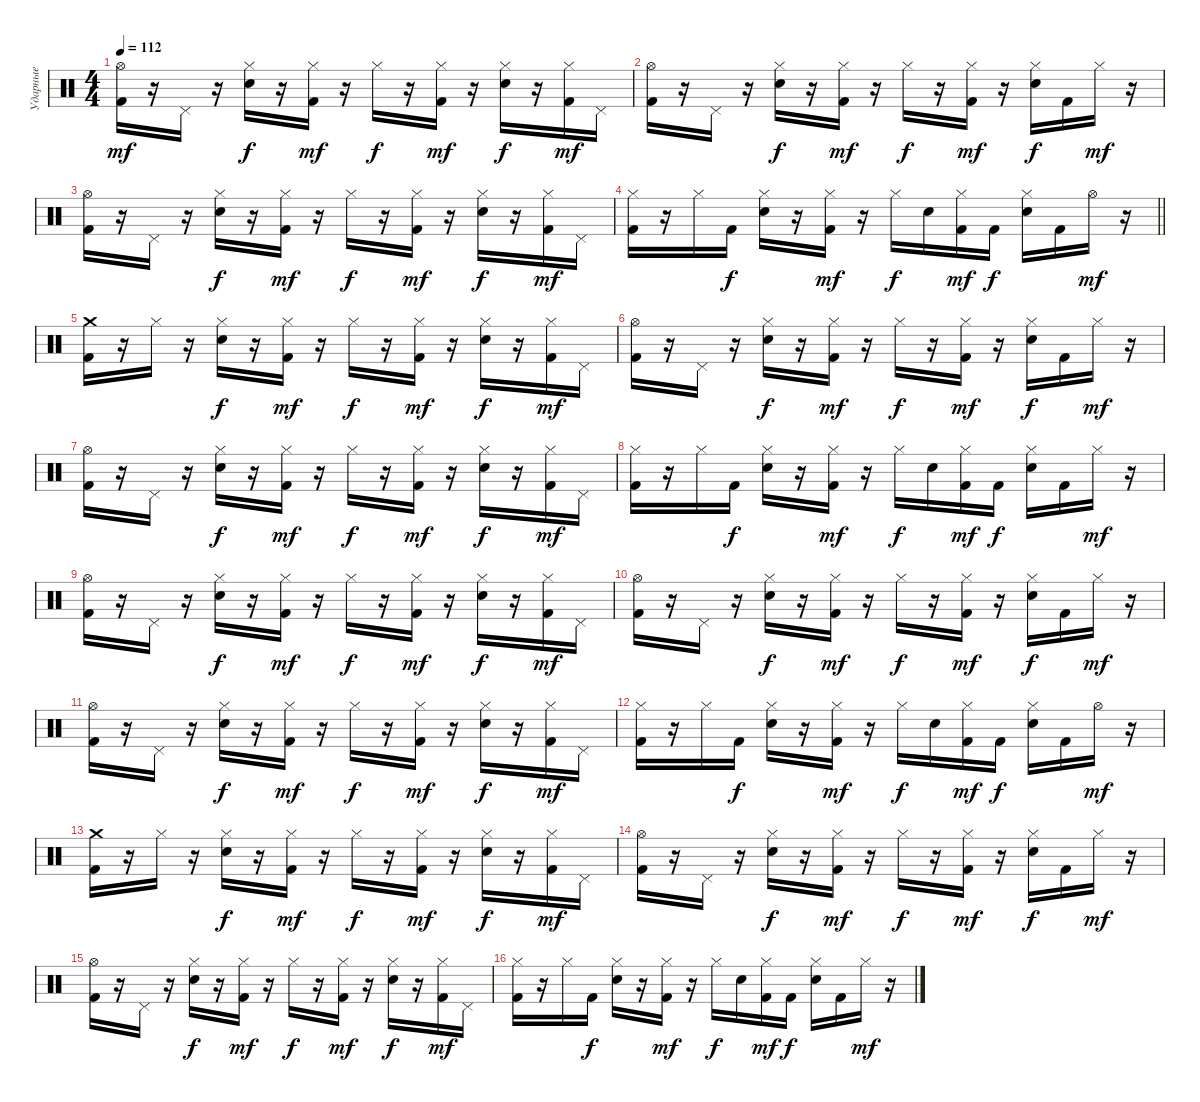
\track ("Ударные" "Ударные") {instrument percussion}
\staff {score}
\articulation defaults
\ts (4 4)
\tempo 112
\clef neutral
\ks c
("Hi-Hat (open)" "Kick (hit) 2").16{dy mf} r.16 "Pedal Hi-Hat (hit)".16 r.16 ("Hi-Hat (closed)" "Electric Snare (hit)").16{dy f} r.16 ("Hi-Hat (closed)" "Kick (hit) 2").16{dy mf} r.16 "Hi-Hat (closed)".16{dy f} r.16 ("Hi-Hat (closed)" "Kick (hit) 2").16{dy mf} r.16 ("Hi-Hat (closed)" "Electric Snare (hit)").16{dy f} r.16 ("Hi-Hat (closed)" "Kick (hit) 2").16{dy mf} "Pedal Hi-Hat (hit)".16 |
("Hi-Hat (open)" "Kick (hit) 2").16 r.16 "Pedal Hi-Hat (hit)".16 r.16 ("Hi-Hat (closed)" "Electric Snare (hit)").16{dy f} r.16 ("Hi-Hat (closed)" "Kick (hit) 2").16{dy mf} r.16 "Hi-Hat (closed)".16{dy f} r.16 ("Hi-Hat (closed)" "Kick (hit) 2").16{dy mf} r.16 ("Hi-Hat (closed)" "Electric Snare (hit)").16{dy f} "Kick (hit) 2".16 "Hi-Hat (closed)".16{dy mf} r.16 |
("Hi-Hat (open)" "Kick (hit) 2").16 r.16 "Pedal Hi-Hat (hit)".16 r.16 ("Hi-Hat (closed)" "Electric Snare (hit)").16{dy f} r.16 ("Hi-Hat (closed)" "Kick (hit) 2").16{dy mf} r.16 "Hi-Hat (closed)".16{dy f} r.16 ("Hi-Hat (closed)" "Kick (hit) 2").16{dy mf} r.16 ("Hi-Hat (closed)" "Electric Snare (hit)").16{dy f} r.16 ("Hi-Hat (closed)" "Kick (hit) 2").16{dy mf} "Pedal Hi-Hat (hit)".16 |
\barLineRight lightlight
("Hi-Hat (closed)" "Kick (hit) 2").16 r.16 "Hi-Hat (closed)".16 "Kick (hit) 2".16{dy f} ("Hi-Hat (closed)" "Electric Snare (hit)").16 r.16 ("Hi-Hat (closed)" "Kick (hit) 2").16{dy mf} r.16 "Hi-Hat (closed)".16{dy f} "Electric Snare (hit)".16 ("Hi-Hat (closed)" "Kick (hit) 2").16{dy mf} "Kick (hit) 2".16{dy f} ("Hi-Hat (closed)" "Electric Snare (hit)").16 "Kick (hit) 2".16 "Hi-Hat (open)".16{dy mf} r.16 |
("Crash medium (hit)" "Kick (hit) 2").16 r.16 "Hi-Hat (closed)".16 r.16 ("Hi-Hat (closed)" "Electric Snare (hit)").16{dy f} r.16 ("Hi-Hat (closed)" "Kick (hit) 2").16{dy mf} r.16 "Hi-Hat (closed)".16{dy f} r.16 ("Hi-Hat (closed)" "Kick (hit) 2").16{dy mf} r.16 ("Hi-Hat (closed)" "Electric Snare (hit)").16{dy f} r.16 ("Hi-Hat (closed)" "Kick (hit) 2").16{dy mf} "Pedal Hi-Hat (hit)".16 |
("Hi-Hat (open)" "Kick (hit) 2").16 r.16 "Pedal Hi-Hat (hit)".16 r.16 ("Hi-Hat (closed)" "Electric Snare (hit)").16{dy f} r.16 ("Hi-Hat (closed)" "Kick (hit) 2").16{dy mf} r.16 "Hi-Hat (closed)".16{dy f} r.16 ("Hi-Hat (closed)" "Kick (hit) 2").16{dy mf} r.16 ("Hi-Hat (closed)" "Electric Snare (hit)").16{dy f} "Kick (hit) 2".16 "Hi-Hat (closed)".16{dy mf} r.16 |
("Hi-Hat (open)" "Kick (hit) 2").16 r.16 "Pedal Hi-Hat (hit)".16 r.16 ("Hi-Hat (closed)" "Electric Snare (hit)").16{dy f} r.16 ("Hi-Hat (closed)" "Kick (hit) 2").16{dy mf} r.16 "Hi-Hat (closed)".16{dy f} r.16 ("Hi-Hat (closed)" "Kick (hit) 2").16{dy mf} r.16 ("Hi-Hat (closed)" "Electric Snare (hit)").16{dy f} r.16 ("Hi-Hat (closed)" "Kick (hit) 2").16{dy mf} "Pedal Hi-Hat (hit)".16 |
("Hi-Hat (closed)" "Kick (hit) 2").16 r.16 "Hi-Hat (closed)".16 "Kick (hit) 2".16{dy f} ("Hi-Hat (closed)" "Electric Snare (hit)").16 r.16 ("Hi-Hat (closed)" "Kick (hit) 2").16{dy mf} r.16 "Hi-Hat (closed)".16{dy f} "Electric Snare (hit)".16 ("Hi-Hat (closed)" "Kick (hit) 2").16{dy mf} "Kick (hit) 2".16{dy f} ("Hi-Hat (closed)" "Electric Snare (hit)").16 "Kick (hit) 2".16 "Hi-Hat (closed)".16{dy mf} r.16 |
("Hi-Hat (open)" "Kick (hit) 2").16 r.16 "Pedal Hi-Hat (hit)".16 r.16 ("Hi-Hat (closed)" "Electric Snare (hit)").16{dy f} r.16 ("Hi-Hat (closed)" "Kick (hit) 2").16{dy mf} r.16 "Hi-Hat (closed)".16{dy f} r.16 ("Hi-Hat (closed)" "Kick (hit) 2").16{dy mf} r.16 ("Hi-Hat (closed)" "Electric Snare (hit)").16{dy f} r.16 ("Hi-Hat (closed)" "Kick (hit) 2").16{dy mf} "Pedal Hi-Hat (hit)".16 |
("Hi-Hat (open)" "Kick (hit) 2").16 r.16 "Pedal Hi-Hat (hit)".16 r.16 ("Hi-Hat (closed)" "Electric Snare (hit)").16{dy f} r.16 ("Hi-Hat (closed)" "Kick (hit) 2").16{dy mf} r.16 "Hi-Hat (closed)".16{dy f} r.16 ("Hi-Hat (closed)" "Kick (hit) 2").16{dy mf} r.16 ("Hi-Hat (closed)" "Electric Snare (hit)").16{dy f} "Kick (hit) 2".16 "Hi-Hat (closed)".16{dy mf} r.16 |
("Hi-Hat (open)" "Kick (hit) 2").16 r.16 "Pedal Hi-Hat (hit)".16 r.16 ("Hi-Hat (closed)" "Electric Snare (hit)").16{dy f} r.16 ("Hi-Hat (closed)" "Kick (hit) 2").16{dy mf} r.16 "Hi-Hat (closed)".16{dy f} r.16 ("Hi-Hat (closed)" "Kick (hit) 2").16{dy mf} r.16 ("Hi-Hat (closed)" "Electric Snare (hit)").16{dy f} r.16 ("Hi-Hat (closed)" "Kick (hit) 2").16{dy mf} "Pedal Hi-Hat (hit)".16 |
("Hi-Hat (closed)" "Kick (hit) 2").16 r.16 "Hi-Hat (closed)".16 "Kick (hit) 2".16{dy f} ("Hi-Hat (closed)" "Electric Snare (hit)").16 r.16 ("Hi-Hat (closed)" "Kick (hit) 2").16{dy mf} r.16 "Hi-Hat (closed)".16{dy f} "Electric Snare (hit)".16 ("Hi-Hat (closed)" "Kick (hit) 2").16{dy mf} "Kick (hit) 2".16{dy f} ("Hi-Hat (closed)" "Electric Snare (hit)").16 "Kick (hit) 2".16 "Hi-Hat (open)".16{dy mf} r.16 |
("Crash medium (hit)" "Kick (hit) 2").16 r.16 "Hi-Hat (closed)".16 r.16 ("Hi-Hat (closed)" "Electric Snare (hit)").16{dy f} r.16 ("Hi-Hat (closed)" "Kick (hit) 2").16{dy mf} r.16 "Hi-Hat (closed)".16{dy f} r.16 ("Hi-Hat (closed)" "Kick (hit) 2").16{dy mf} r.16 ("Hi-Hat (closed)" "Electric Snare (hit)").16{dy f} r.16 ("Hi-Hat (closed)" "Kick (hit) 2").16{dy mf} "Pedal Hi-Hat (hit)".16 |
("Hi-Hat (open)" "Kick (hit) 2").16 r.16 "Pedal Hi-Hat (hit)".16 r.16 ("Hi-Hat (closed)" "Electric Snare (hit)").16{dy f} r.16 ("Hi-Hat (closed)" "Kick (hit) 2").16{dy mf} r.16 "Hi-Hat (closed)".16{dy f} r.16 ("Hi-Hat (closed)" "Kick (hit) 2").16{dy mf} r.16 ("Hi-Hat (closed)" "Electric Snare (hit)").16{dy f} "Kick (hit) 2".16 "Hi-Hat (closed)".16{dy mf} r.16 |
("Hi-Hat (open)" "Kick (hit) 2").16 r.16 "Pedal Hi-Hat (hit)".16 r.16 ("Hi-Hat (closed)" "Electric Snare (hit)").16{dy f} r.16 ("Hi-Hat (closed)" "Kick (hit) 2").16{dy mf} r.16 "Hi-Hat (closed)".16{dy f} r.16 ("Hi-Hat (closed)" "Kick (hit) 2").16{dy mf} r.16 ("Hi-Hat (closed)" "Electric Snare (hit)").16{dy f} r.16 ("Hi-Hat (closed)" "Kick (hit) 2").16{dy mf} "Pedal Hi-Hat (hit)".16 |
("Hi-Hat (closed)" "Kick (hit) 2").16 r.16 "Hi-Hat (closed)".16 "Kick (hit) 2".16{dy f} ("Hi-Hat (closed)" "Electric Snare (hit)").16 r.16 ("Hi-Hat (closed)" "Kick (hit) 2").16{dy mf} r.16 "Hi-Hat (closed)".16{dy f} "Electric Snare (hit)".16 ("Hi-Hat (closed)" "Kick (hit) 2").16{dy mf} "Kick (hit) 2".16{dy f} ("Hi-Hat (closed)" "Electric Snare (hit)").16 "Kick (hit) 2".16 "Hi-Hat (closed)".16{dy mf} r.16
